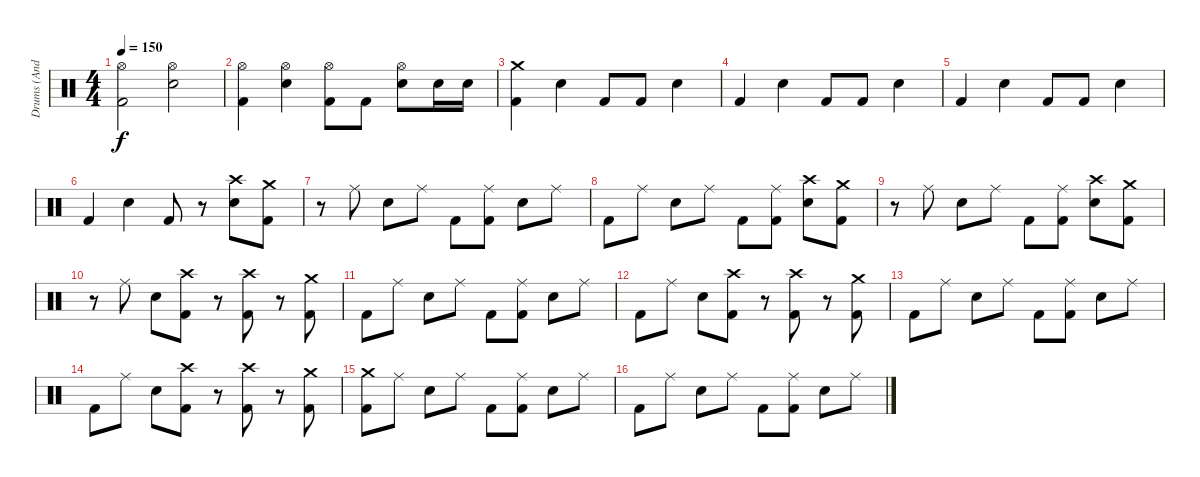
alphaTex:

\track ("Drums (Andy C)" "Drums (And") {instrument percussion}
\staff {score}
\articulation defaults
\ts (4 4)
\tempo 150
\clef neutral
\ks c
("Hi-Hat (open)" "Kick (hit) 2").2{dy f} ("Hi-Hat (open)" "Electric Snare (hit)").2 |
("Hi-Hat (open)" "Kick (hit) 2").4 ("Hi-Hat (open)" "Electric Snare (hit)").4 ("Hi-Hat (open)" "Kick (hit) 2").8 "Kick (hit) 2".8 ("Hi-Hat (open)" "Electric Snare (hit)").8 "Electric Snare (hit)".16 "Electric Snare (hit)".16 |
("Crash medium (hit)" "Kick (hit) 2").4 "Electric Snare (hit)".4 "Kick (hit) 2".8 "Kick (hit) 2".8 "Electric Snare (hit)".4 |
"Kick (hit) 2".4 "Electric Snare (hit)".4 "Kick (hit) 2".8 "Kick (hit) 2".8 "Electric Snare (hit)".4 |
"Kick (hit) 2".4 "Electric Snare (hit)".4 "Kick (hit) 2".8 "Kick (hit) 2".8 "Electric Snare (hit)".4 |
"Kick (hit) 2".4 "Electric Snare (hit)".4 "Kick (hit) 2".8 r.8 ("Crash high (hit)" "Electric Snare (hit)").8 ("Crash medium (hit)" "Kick (hit) 2").8 |
r.8 "Ride (middle)".8 "Electric Snare (hit)".8 "Ride (middle)".8 "Kick (hit) 2".8 ("Ride (middle)" "Kick (hit) 2").8 "Electric Snare (hit)".8 "Ride (middle)".8 |
"Kick (hit) 2".8 "Ride (middle)".8 "Electric Snare (hit)".8 "Ride (middle)".8 "Kick (hit) 2".8 ("Ride (middle)" "Kick (hit) 2").8 ("Crash high (hit)" "Electric Snare (hit)").8 ("Crash medium (hit)" "Kick (hit) 2").8 |
r.8 "Ride (middle)".8 "Electric Snare (hit)".8 "Ride (middle)".8 "Kick (hit) 2".8 ("Ride (middle)" "Kick (hit) 2").8 ("Crash high (hit)" "Electric Snare (hit)").8 ("Crash medium (hit)" "Kick (hit) 2").8 |
r.8 "Ride (middle)".8 "Electric Snare (hit)".8 ("Crash high (hit)" "Kick (hit) 2").8 r.8 ("Crash high (hit)" "Kick (hit) 2").8 r.8 ("Crash medium (hit)" "Kick (hit) 2").8 |
"Kick (hit) 2".8 "Ride (middle)".8 "Electric Snare (hit)".8 "Ride (middle)".8 "Kick (hit) 2".8 ("Ride (middle)" "Kick (hit) 2").8 "Electric Snare (hit)".8 "Ride (middle)".8 |
"Kick (hit) 2".8 "Ride (middle)".8 "Electric Snare (hit)".8 ("Crash high (hit)" "Kick (hit) 2").8 r.8 ("Crash high (hit)" "Kick (hit) 2").8 r.8 ("Crash medium (hit)" "Kick (hit) 2").8 |
"Kick (hit) 2".8 "Ride (middle)".8 "Electric Snare (hit)".8 "Ride (middle)".8 "Kick (hit) 2".8 ("Ride (middle)" "Kick (hit) 2").8 "Electric Snare (hit)".8 "Ride (middle)".8 |
"Kick (hit) 2".8 "Ride (middle)".8 "Electric Snare (hit)".8 ("Crash high (hit)" "Kick (hit) 2").8 r.8 ("Crash high (hit)" "Kick (hit) 2").8 r.8 ("Crash medium (hit)" "Kick (hit) 2").8 |
("Crash medium (hit)" "Kick (hit) 2").8 "Ride (middle)".8 "Electric Snare (hit)".8 "Ride (middle)".8 "Kick (hit) 2".8 ("Ride (middle)" "Kick (hit) 2").8 "Electric Snare (hit)".8 "Ride (middle)".8 |
"Kick (hit) 2".8 "Ride (middle)".8 "Electric Snare (hit)".8 "Ride (middle)".8 "Kick (hit) 2".8 ("Ride (middle)" "Kick (hit) 2").8 "Electric Snare (hit)".8 "Ride (middle)".8
